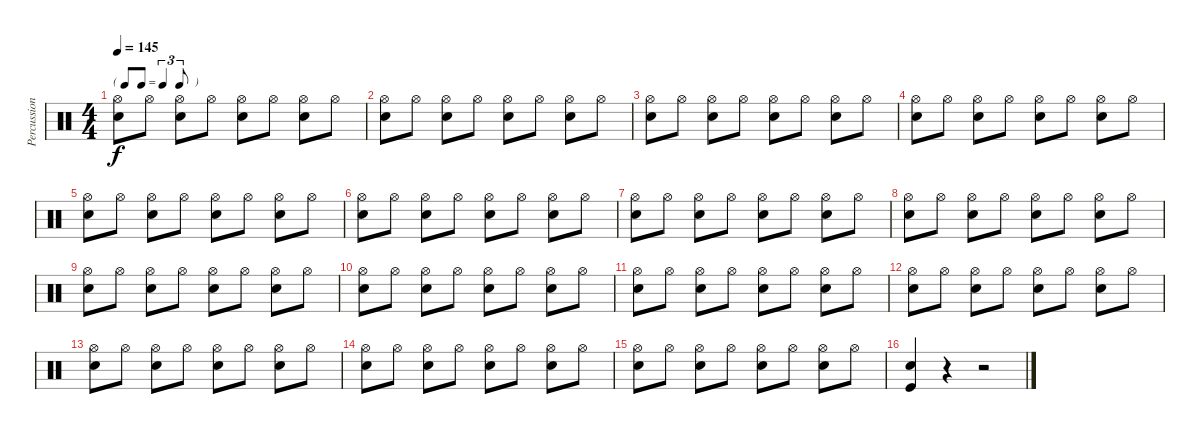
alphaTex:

\track ("Percussion" "Percussion") {instrument percussion}
\staff {score}
\articulation defaults
\ts (4 4)
\tf triplet8th
\tempo 145
\clef neutral
\ks c
("Hi-Hat (open)" "Snare (hit) 2").8{dy f} "Hi-Hat (open)".8 ("Hi-Hat (open)" "Snare (hit) 2").8 "Hi-Hat (open)".8 ("Hi-Hat (open)" "Snare (hit) 2").8 "Hi-Hat (open)".8 ("Hi-Hat (open)" "Snare (hit) 2").8 "Hi-Hat (open)".8 |
("Hi-Hat (open)" "Snare (hit) 2").8 "Hi-Hat (open)".8 ("Hi-Hat (open)" "Snare (hit) 2").8 "Hi-Hat (open)".8 ("Hi-Hat (open)" "Snare (hit) 2").8 "Hi-Hat (open)".8 ("Hi-Hat (open)" "Snare (hit) 2").8 "Hi-Hat (open)".8 |
("Hi-Hat (open)" "Snare (hit) 2").8 "Hi-Hat (open)".8 ("Hi-Hat (open)" "Snare (hit) 2").8 "Hi-Hat (open)".8 ("Hi-Hat (open)" "Snare (hit) 2").8 "Hi-Hat (open)".8 ("Hi-Hat (open)" "Snare (hit) 2").8 "Hi-Hat (open)".8 |
("Hi-Hat (open)" "Snare (hit) 2").8 "Hi-Hat (open)".8 ("Hi-Hat (open)" "Snare (hit) 2").8 "Hi-Hat (open)".8 ("Hi-Hat (open)" "Snare (hit) 2").8 "Hi-Hat (open)".8 ("Hi-Hat (open)" "Snare (hit) 2").8 "Hi-Hat (open)".8 |
("Hi-Hat (open)" "Snare (hit) 2").8 "Hi-Hat (open)".8 ("Hi-Hat (open)" "Snare (hit) 2").8 "Hi-Hat (open)".8 ("Hi-Hat (open)" "Snare (hit) 2").8 "Hi-Hat (open)".8 ("Hi-Hat (open)" "Snare (hit) 2").8 "Hi-Hat (open)".8 |
("Hi-Hat (open)" "Snare (hit) 2").8 "Hi-Hat (open)".8 ("Hi-Hat (open)" "Snare (hit) 2").8 "Hi-Hat (open)".8 ("Hi-Hat (open)" "Snare (hit) 2").8 "Hi-Hat (open)".8 ("Hi-Hat (open)" "Snare (hit) 2").8 "Hi-Hat (open)".8 |
("Hi-Hat (open)" "Snare (hit) 2").8 "Hi-Hat (open)".8 ("Hi-Hat (open)" "Snare (hit) 2").8 "Hi-Hat (open)".8 ("Hi-Hat (open)" "Snare (hit) 2").8 "Hi-Hat (open)".8 ("Hi-Hat (open)" "Snare (hit) 2").8 "Hi-Hat (open)".8 |
("Hi-Hat (open)" "Snare (hit) 2").8 "Hi-Hat (open)".8 ("Hi-Hat (open)" "Snare (hit) 2").8 "Hi-Hat (open)".8 ("Hi-Hat (open)" "Snare (hit) 2").8 "Hi-Hat (open)".8 ("Hi-Hat (open)" "Snare (hit) 2").8 "Hi-Hat (open)".8 |
("Hi-Hat (open)" "Snare (hit) 2").8 "Hi-Hat (open)".8 ("Hi-Hat (open)" "Snare (hit) 2").8 "Hi-Hat (open)".8 ("Hi-Hat (open)" "Snare (hit) 2").8 "Hi-Hat (open)".8 ("Hi-Hat (open)" "Snare (hit) 2").8 "Hi-Hat (open)".8 |
("Hi-Hat (open)" "Snare (hit) 2").8 "Hi-Hat (open)".8 ("Hi-Hat (open)" "Snare (hit) 2").8 "Hi-Hat (open)".8 ("Hi-Hat (open)" "Snare (hit) 2").8 "Hi-Hat (open)".8 ("Hi-Hat (open)" "Snare (hit) 2").8 "Hi-Hat (open)".8 |
("Hi-Hat (open)" "Snare (hit) 2").8 "Hi-Hat (open)".8 ("Hi-Hat (open)" "Snare (hit) 2").8 "Hi-Hat (open)".8 ("Hi-Hat (open)" "Snare (hit) 2").8 "Hi-Hat (open)".8 ("Hi-Hat (open)" "Snare (hit) 2").8 "Hi-Hat (open)".8 |
("Hi-Hat (open)" "Snare (hit) 2").8 "Hi-Hat (open)".8 ("Hi-Hat (open)" "Snare (hit) 2").8 "Hi-Hat (open)".8 ("Hi-Hat (open)" "Snare (hit) 2").8 "Hi-Hat (open)".8 ("Hi-Hat (open)" "Snare (hit) 2").8 "Hi-Hat (open)".8 |
("Hi-Hat (open)" "Snare (hit) 2").8 "Hi-Hat (open)".8 ("Hi-Hat (open)" "Snare (hit) 2").8 "Hi-Hat (open)".8 ("Hi-Hat (open)" "Snare (hit) 2").8 "Hi-Hat (open)".8 ("Hi-Hat (open)" "Snare (hit) 2").8 "Hi-Hat (open)".8 |
("Hi-Hat (open)" "Snare (hit) 2").8 "Hi-Hat (open)".8 ("Hi-Hat (open)" "Snare (hit) 2").8 "Hi-Hat (open)".8 ("Hi-Hat (open)" "Snare (hit) 2").8 "Hi-Hat (open)".8 ("Hi-Hat (open)" "Snare (hit) 2").8 "Hi-Hat (open)".8 |
("Hi-Hat (open)" "Snare (hit) 2").8 "Hi-Hat (open)".8 ("Hi-Hat (open)" "Snare (hit) 2").8 "Hi-Hat (open)".8 ("Hi-Hat (open)" "Snare (hit) 2").8 "Hi-Hat (open)".8 ("Hi-Hat (open)" "Snare (hit) 2").8 "Hi-Hat (open)".8 |
("Snare (hit) 2" "Kick (hit)").4 r.4 r.2
